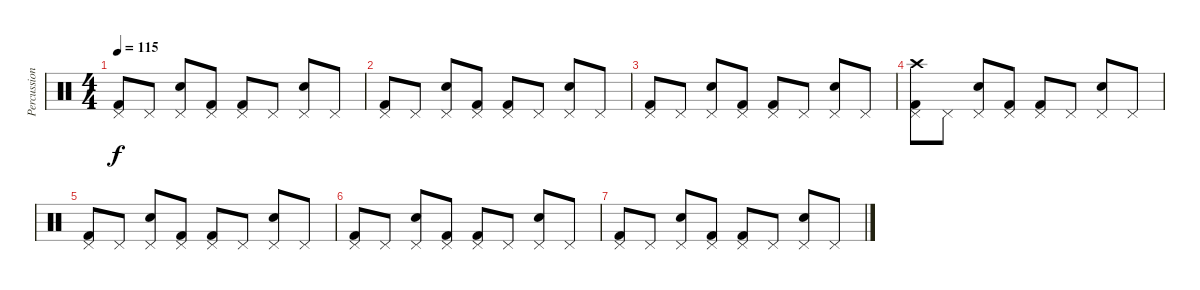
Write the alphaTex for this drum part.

\track ("Percussion" "Percussion") {instrument percussion}
\staff {score}
\articulation defaults
\ts (4 4)
\tempo 115
\clef neutral
\ks c
("Pedal Hi-Hat (hit)" "Kick (hit) 2").8{dy f} "Pedal Hi-Hat (hit)".8 ("Pedal Hi-Hat (hit)" "Snare (hit) 2").8 ("Pedal Hi-Hat (hit)" "Kick (hit) 2").8 ("Pedal Hi-Hat (hit)" "Kick (hit) 2").8 "Pedal Hi-Hat (hit)".8 ("Pedal Hi-Hat (hit)" "Snare (hit) 2").8 "Pedal Hi-Hat (hit)".8 |
("Pedal Hi-Hat (hit)" "Kick (hit) 2").8 "Pedal Hi-Hat (hit)".8 ("Pedal Hi-Hat (hit)" "Snare (hit) 2").8 ("Pedal Hi-Hat (hit)" "Kick (hit) 2").8 ("Pedal Hi-Hat (hit)" "Kick (hit) 2").8 "Pedal Hi-Hat (hit)".8 ("Pedal Hi-Hat (hit)" "Snare (hit) 2").8 "Pedal Hi-Hat (hit)".8 |
("Pedal Hi-Hat (hit)" "Kick (hit) 2").8 "Pedal Hi-Hat (hit)".8 ("Pedal Hi-Hat (hit)" "Snare (hit) 2").8 ("Pedal Hi-Hat (hit)" "Kick (hit) 2").8 ("Pedal Hi-Hat (hit)" "Kick (hit) 2").8 "Pedal Hi-Hat (hit)".8 ("Pedal Hi-Hat (hit)" "Snare (hit) 2").8 "Pedal Hi-Hat (hit)".8 |
("Crash high (hit)" "Pedal Hi-Hat (hit)" "Kick (hit) 2").8 "Pedal Hi-Hat (hit)".8 ("Pedal Hi-Hat (hit)" "Snare (hit) 2").8 ("Pedal Hi-Hat (hit)" "Kick (hit) 2").8 ("Pedal Hi-Hat (hit)" "Kick (hit) 2").8 "Pedal Hi-Hat (hit)".8 ("Pedal Hi-Hat (hit)" "Snare (hit) 2").8 "Pedal Hi-Hat (hit)".8 |
("Pedal Hi-Hat (hit)" "Kick (hit) 2").8 "Pedal Hi-Hat (hit)".8 ("Pedal Hi-Hat (hit)" "Snare (hit) 2").8 ("Pedal Hi-Hat (hit)" "Kick (hit) 2").8 ("Pedal Hi-Hat (hit)" "Kick (hit) 2").8 "Pedal Hi-Hat (hit)".8 ("Pedal Hi-Hat (hit)" "Snare (hit) 2").8 "Pedal Hi-Hat (hit)".8 |
("Pedal Hi-Hat (hit)" "Kick (hit) 2").8 "Pedal Hi-Hat (hit)".8 ("Pedal Hi-Hat (hit)" "Snare (hit) 2").8 ("Pedal Hi-Hat (hit)" "Kick (hit) 2").8 ("Pedal Hi-Hat (hit)" "Kick (hit) 2").8 "Pedal Hi-Hat (hit)".8 ("Pedal Hi-Hat (hit)" "Snare (hit) 2").8 "Pedal Hi-Hat (hit)".8 |
("Pedal Hi-Hat (hit)" "Kick (hit) 2").8 "Pedal Hi-Hat (hit)".8 ("Pedal Hi-Hat (hit)" "Snare (hit) 2").8 ("Pedal Hi-Hat (hit)" "Kick (hit) 2").8 ("Pedal Hi-Hat (hit)" "Kick (hit) 2").8 "Pedal Hi-Hat (hit)".8 ("Pedal Hi-Hat (hit)" "Snare (hit) 2").8 "Pedal Hi-Hat (hit)".8
